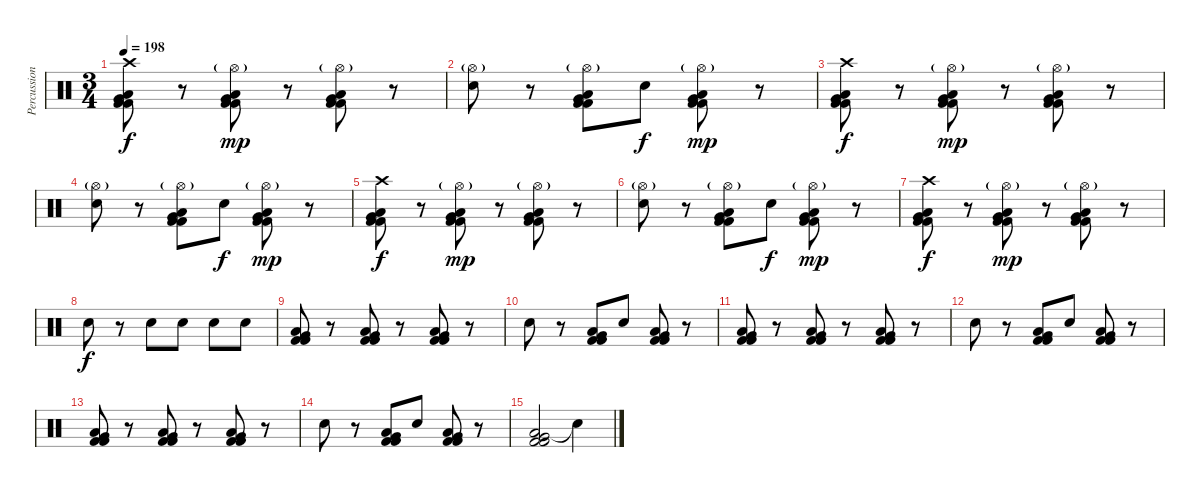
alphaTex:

\track ("Percussions" "Percussion") {instrument percussion}
\staff {score}
\articulation defaults
\ts (3 4)
\tempo 198
\clef neutral
\ks c
("Low Floor Tom (hit)" "Kick (hit) 2" "Kick (hit) 2" "Very Low Tom (hit)" "Crash high (hit)").8{dy f} r.8 ("Low Floor Tom (hit)" "Kick (hit) 2" "Kick (hit) 2" "Very Low Tom (hit)" "Hi-Hat (open)"{g}).8{dy mp} r.8 ("Low Floor Tom (hit)" "Kick (hit) 2" "Kick (hit) 2" "Very Low Tom (hit)" "Hi-Hat (open)"{g}).8 r.8 |
("Electric Snare (hit)" "Hi-Hat (open)"{g}).8 r.8 ("Low Floor Tom (hit)" "Kick (hit) 2" "Kick (hit) 2" "Very Low Tom (hit)" "Hi-Hat (open)"{g}).8 "Electric Snare (hit)".8{dy f} ("Low Floor Tom (hit)" "Kick (hit) 2" "Kick (hit) 2" "Very Low Tom (hit)" "Hi-Hat (open)"{g}).8{dy mp} r.8 |
("Low Floor Tom (hit)" "Kick (hit) 2" "Kick (hit) 2" "Very Low Tom (hit)" "Crash high (hit)").8{dy f} r.8 ("Low Floor Tom (hit)" "Kick (hit) 2" "Kick (hit) 2" "Very Low Tom (hit)" "Hi-Hat (open)"{g}).8{dy mp} r.8 ("Low Floor Tom (hit)" "Kick (hit) 2" "Kick (hit) 2" "Very Low Tom (hit)" "Hi-Hat (open)"{g}).8 r.8 |
("Electric Snare (hit)" "Hi-Hat (open)"{g}).8 r.8 ("Low Floor Tom (hit)" "Kick (hit) 2" "Kick (hit) 2" "Very Low Tom (hit)" "Hi-Hat (open)"{g}).8 "Electric Snare (hit)".8{dy f} ("Low Floor Tom (hit)" "Kick (hit) 2" "Kick (hit) 2" "Very Low Tom (hit)" "Hi-Hat (open)"{g}).8{dy mp} r.8 |
("Low Floor Tom (hit)" "Kick (hit) 2" "Kick (hit) 2" "Very Low Tom (hit)" "Crash high (hit)").8{dy f} r.8 ("Low Floor Tom (hit)" "Kick (hit) 2" "Kick (hit) 2" "Very Low Tom (hit)" "Hi-Hat (open)"{g}).8{dy mp} r.8 ("Low Floor Tom (hit)" "Kick (hit) 2" "Kick (hit) 2" "Very Low Tom (hit)" "Hi-Hat (open)"{g}).8 r.8 |
("Electric Snare (hit)" "Hi-Hat (open)"{g}).8 r.8 ("Low Floor Tom (hit)" "Kick (hit) 2" "Kick (hit) 2" "Very Low Tom (hit)" "Hi-Hat (open)"{g}).8 "Electric Snare (hit)".8{dy f} ("Low Floor Tom (hit)" "Kick (hit) 2" "Kick (hit) 2" "Very Low Tom (hit)" "Hi-Hat (open)"{g}).8{dy mp} r.8 |
("Low Floor Tom (hit)" "Kick (hit) 2" "Kick (hit) 2" "Very Low Tom (hit)" "Crash high (hit)").8{dy f} r.8 ("Low Floor Tom (hit)" "Kick (hit) 2" "Kick (hit) 2" "Very Low Tom (hit)" "Hi-Hat (open)"{g}).8{dy mp} r.8 ("Low Floor Tom (hit)" "Kick (hit) 2" "Kick (hit) 2" "Very Low Tom (hit)" "Hi-Hat (open)"{g}).8 r.8 |
"Electric Snare (hit)".8{dy f} r.8 "Electric Snare (hit)".8 "Electric Snare (hit)".8 "Electric Snare (hit)".8 "Electric Snare (hit)".8 |
("Low Floor Tom (hit)" "Kick (hit) 2" "Kick (hit) 2" "Very Low Tom (hit)").8 r.8 ("Low Floor Tom (hit)" "Kick (hit) 2" "Kick (hit) 2" "Very Low Tom (hit)").8 r.8 ("Low Floor Tom (hit)" "Kick (hit) 2" "Kick (hit) 2" "Very Low Tom (hit)").8 r.8 |
"Electric Snare (hit)".8 r.8 ("Low Floor Tom (hit)" "Kick (hit) 2" "Kick (hit) 2" "Very Low Tom (hit)").8 "Electric Snare (hit)".8 ("Low Floor Tom (hit)" "Kick (hit) 2" "Kick (hit) 2" "Very Low Tom (hit)").8 r.8 |
("Low Floor Tom (hit)" "Kick (hit) 2" "Kick (hit) 2" "Very Low Tom (hit)").8 r.8 ("Low Floor Tom (hit)" "Kick (hit) 2" "Kick (hit) 2" "Very Low Tom (hit)").8 r.8 ("Low Floor Tom (hit)" "Kick (hit) 2" "Kick (hit) 2" "Very Low Tom (hit)").8 r.8 |
"Electric Snare (hit)".8 r.8 ("Low Floor Tom (hit)" "Kick (hit) 2" "Kick (hit) 2" "Very Low Tom (hit)").8 "Electric Snare (hit)".8 ("Low Floor Tom (hit)" "Kick (hit) 2" "Kick (hit) 2" "Very Low Tom (hit)").8 r.8 |
("Low Floor Tom (hit)" "Kick (hit) 2" "Kick (hit) 2" "Very Low Tom (hit)").8 r.8 ("Low Floor Tom (hit)" "Kick (hit) 2" "Kick (hit) 2" "Very Low Tom (hit)").8 r.8 ("Low Floor Tom (hit)" "Kick (hit) 2" "Kick (hit) 2" "Very Low Tom (hit)").8 r.8 |
"Electric Snare (hit)".8 r.8 ("Low Floor Tom (hit)" "Kick (hit) 2" "Kick (hit) 2" "Very Low Tom (hit)").8 "Electric Snare (hit)".8 ("Low Floor Tom (hit)" "Kick (hit) 2" "Kick (hit) 2" "Very Low Tom (hit)").8 r.8 |
("Low Floor Tom (hit)" "Kick (hit) 2" "Kick (hit) 2" "Very Low Tom (hit)").2 "Snare (hit)"{t}.4
